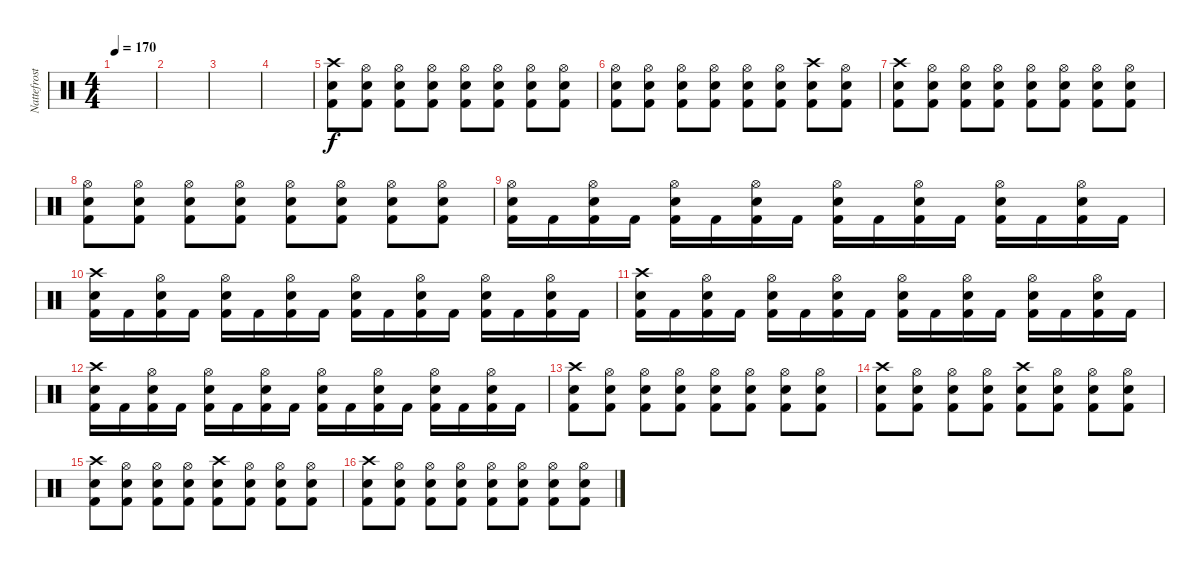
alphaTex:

\track ("Nattefrost" "Nattefrost") {instrument percussion}
\staff {score}
\articulation defaults
\ts (4 4)
\tempo 170
\clef neutral
\ks c
|
|
|
|
("Crash high (hit)" "Snare (hit) 2" "Kick (hit) 2").8 ("Hi-Hat (open)" "Snare (hit) 2" "Kick (hit) 2").8 ("Hi-Hat (open)" "Snare (hit) 2" "Kick (hit) 2").8 ("Hi-Hat (open)" "Snare (hit) 2" "Kick (hit) 2").8 ("Hi-Hat (open)" "Snare (hit) 2" "Kick (hit) 2").8 ("Hi-Hat (open)" "Snare (hit) 2" "Kick (hit) 2").8 ("Hi-Hat (open)" "Snare (hit) 2" "Kick (hit) 2").8 ("Hi-Hat (open)" "Snare (hit) 2" "Kick (hit) 2").8 |
("Hi-Hat (open)" "Snare (hit) 2" "Kick (hit) 2").8 ("Hi-Hat (open)" "Snare (hit) 2" "Kick (hit) 2").8 ("Hi-Hat (open)" "Snare (hit) 2" "Kick (hit) 2").8 ("Hi-Hat (open)" "Snare (hit) 2" "Kick (hit) 2").8 ("Hi-Hat (open)" "Snare (hit) 2" "Kick (hit) 2").8 ("Hi-Hat (open)" "Snare (hit) 2" "Kick (hit) 2").8 ("Crash high (hit)" "Snare (hit) 2" "Kick (hit) 2").8 ("Hi-Hat (open)" "Snare (hit) 2" "Kick (hit) 2").8 |
("Crash high (hit)" "Snare (hit) 2" "Kick (hit) 2").8 ("Hi-Hat (open)" "Snare (hit) 2" "Kick (hit) 2").8 ("Hi-Hat (open)" "Snare (hit) 2" "Kick (hit) 2").8 ("Hi-Hat (open)" "Snare (hit) 2" "Kick (hit) 2").8 ("Hi-Hat (open)" "Snare (hit) 2" "Kick (hit) 2").8 ("Hi-Hat (open)" "Snare (hit) 2" "Kick (hit) 2").8 ("Hi-Hat (open)" "Snare (hit) 2" "Kick (hit) 2").8 ("Hi-Hat (open)" "Snare (hit) 2" "Kick (hit) 2").8 |
("Hi-Hat (open)" "Snare (hit) 2" "Kick (hit) 2").8 ("Hi-Hat (open)" "Snare (hit) 2" "Kick (hit) 2").8 ("Hi-Hat (open)" "Snare (hit) 2" "Kick (hit) 2").8 ("Hi-Hat (open)" "Snare (hit) 2" "Kick (hit) 2").8 ("Hi-Hat (open)" "Snare (hit) 2" "Kick (hit) 2").8 ("Hi-Hat (open)" "Snare (hit) 2" "Kick (hit) 2").8 ("Hi-Hat (open)" "Snare (hit) 2" "Kick (hit) 2").8 ("Hi-Hat (open)" "Snare (hit) 2" "Kick (hit) 2").8 |
("Hi-Hat (open)" "Snare (hit) 2" "Kick (hit) 2").16 "Kick (hit) 2".16 ("Hi-Hat (open)" "Snare (hit) 2" "Kick (hit) 2").16 "Kick (hit) 2".16 ("Hi-Hat (open)" "Snare (hit) 2" "Kick (hit) 2").16 "Kick (hit) 2".16 ("Hi-Hat (open)" "Snare (hit) 2" "Kick (hit) 2").16 "Kick (hit) 2".16 ("Hi-Hat (open)" "Snare (hit) 2" "Kick (hit) 2").16 "Kick (hit) 2".16 ("Hi-Hat (open)" "Snare (hit) 2" "Kick (hit) 2").16 "Kick (hit) 2".16 ("Hi-Hat (open)" "Snare (hit) 2" "Kick (hit) 2").16 "Kick (hit) 2".16 ("Hi-Hat (open)" "Snare (hit) 2" "Kick (hit) 2").16 "Kick (hit) 2".16 |
("Crash high (hit)" "Snare (hit) 2" "Kick (hit) 2").16 "Kick (hit) 2".16 ("Hi-Hat (open)" "Snare (hit) 2" "Kick (hit) 2").16 "Kick (hit) 2".16 ("Hi-Hat (open)" "Snare (hit) 2" "Kick (hit) 2").16 "Kick (hit) 2".16 ("Hi-Hat (open)" "Snare (hit) 2" "Kick (hit) 2").16 "Kick (hit) 2".16 ("Hi-Hat (open)" "Snare (hit) 2" "Kick (hit) 2").16 "Kick (hit) 2".16 ("Hi-Hat (open)" "Snare (hit) 2" "Kick (hit) 2").16 "Kick (hit) 2".16 ("Hi-Hat (open)" "Snare (hit) 2" "Kick (hit) 2").16 "Kick (hit) 2".16 ("Hi-Hat (open)" "Snare (hit) 2" "Kick (hit) 2").16 "Kick (hit) 2".16 |
("Crash high (hit)" "Snare (hit) 2" "Kick (hit) 2").16 "Kick (hit) 2".16 ("Hi-Hat (open)" "Snare (hit) 2" "Kick (hit) 2").16 "Kick (hit) 2".16 ("Hi-Hat (open)" "Snare (hit) 2" "Kick (hit) 2").16 "Kick (hit) 2".16 ("Hi-Hat (open)" "Snare (hit) 2" "Kick (hit) 2").16 "Kick (hit) 2".16 ("Hi-Hat (open)" "Snare (hit) 2" "Kick (hit) 2").16 "Kick (hit) 2".16 ("Hi-Hat (open)" "Snare (hit) 2" "Kick (hit) 2").16 "Kick (hit) 2".16 ("Hi-Hat (open)" "Snare (hit) 2" "Kick (hit) 2").16 "Kick (hit) 2".16 ("Hi-Hat (open)" "Snare (hit) 2" "Kick (hit) 2").16 "Kick (hit) 2".16 |
("Crash high (hit)" "Snare (hit) 2" "Kick (hit) 2").16 "Kick (hit) 2".16 ("Hi-Hat (open)" "Snare (hit) 2" "Kick (hit) 2").16 "Kick (hit) 2".16 ("Hi-Hat (open)" "Snare (hit) 2" "Kick (hit) 2").16 "Kick (hit) 2".16 ("Hi-Hat (open)" "Snare (hit) 2" "Kick (hit) 2").16 "Kick (hit) 2".16 ("Hi-Hat (open)" "Snare (hit) 2" "Kick (hit) 2").16 "Kick (hit) 2".16 ("Hi-Hat (open)" "Snare (hit) 2" "Kick (hit) 2").16 "Kick (hit) 2".16 ("Hi-Hat (open)" "Snare (hit) 2" "Kick (hit) 2").16 "Kick (hit) 2".16 ("Hi-Hat (open)" "Snare (hit) 2" "Kick (hit) 2").16 "Kick (hit) 2".16 |
("Crash high (hit)" "Snare (hit) 2" "Kick (hit) 2").8 ("Hi-Hat (open)" "Snare (hit) 2" "Kick (hit) 2").8 ("Hi-Hat (open)" "Snare (hit) 2" "Kick (hit) 2").8 ("Hi-Hat (open)" "Snare (hit) 2" "Kick (hit) 2").8 ("Hi-Hat (open)" "Snare (hit) 2" "Kick (hit) 2").8 ("Hi-Hat (open)" "Snare (hit) 2" "Kick (hit) 2").8 ("Hi-Hat (open)" "Snare (hit) 2" "Kick (hit) 2").8 ("Hi-Hat (open)" "Snare (hit) 2" "Kick (hit) 2").8 |
("Crash high (hit)" "Snare (hit) 2" "Kick (hit) 2").8 ("Hi-Hat (open)" "Snare (hit) 2" "Kick (hit) 2").8 ("Hi-Hat (open)" "Snare (hit) 2" "Kick (hit) 2").8 ("Hi-Hat (open)" "Snare (hit) 2" "Kick (hit) 2").8 ("Crash high (hit)" "Snare (hit) 2" "Kick (hit) 2").8 ("Hi-Hat (open)" "Snare (hit) 2" "Kick (hit) 2").8 ("Hi-Hat (open)" "Snare (hit) 2" "Kick (hit) 2").8 ("Hi-Hat (open)" "Snare (hit) 2" "Kick (hit) 2").8 |
("Crash high (hit)" "Snare (hit) 2" "Kick (hit) 2").8 ("Hi-Hat (open)" "Snare (hit) 2" "Kick (hit) 2").8 ("Hi-Hat (open)" "Snare (hit) 2" "Kick (hit) 2").8 ("Hi-Hat (open)" "Snare (hit) 2" "Kick (hit) 2").8 ("Crash high (hit)" "Snare (hit) 2" "Kick (hit) 2").8 ("Hi-Hat (open)" "Snare (hit) 2" "Kick (hit) 2").8 ("Hi-Hat (open)" "Snare (hit) 2" "Kick (hit) 2").8 ("Hi-Hat (open)" "Snare (hit) 2" "Kick (hit) 2").8 |
("Crash high (hit)" "Snare (hit) 2" "Kick (hit) 2").8 ("Hi-Hat (open)" "Snare (hit) 2" "Kick (hit) 2").8 ("Hi-Hat (open)" "Snare (hit) 2" "Kick (hit) 2").8 ("Hi-Hat (open)" "Snare (hit) 2" "Kick (hit) 2").8 ("Hi-Hat (open)" "Snare (hit) 2" "Kick (hit) 2").8 ("Hi-Hat (open)" "Snare (hit) 2" "Kick (hit) 2").8 ("Hi-Hat (open)" "Snare (hit) 2" "Kick (hit) 2").8 ("Hi-Hat (open)" "Snare (hit) 2" "Kick (hit) 2").8
